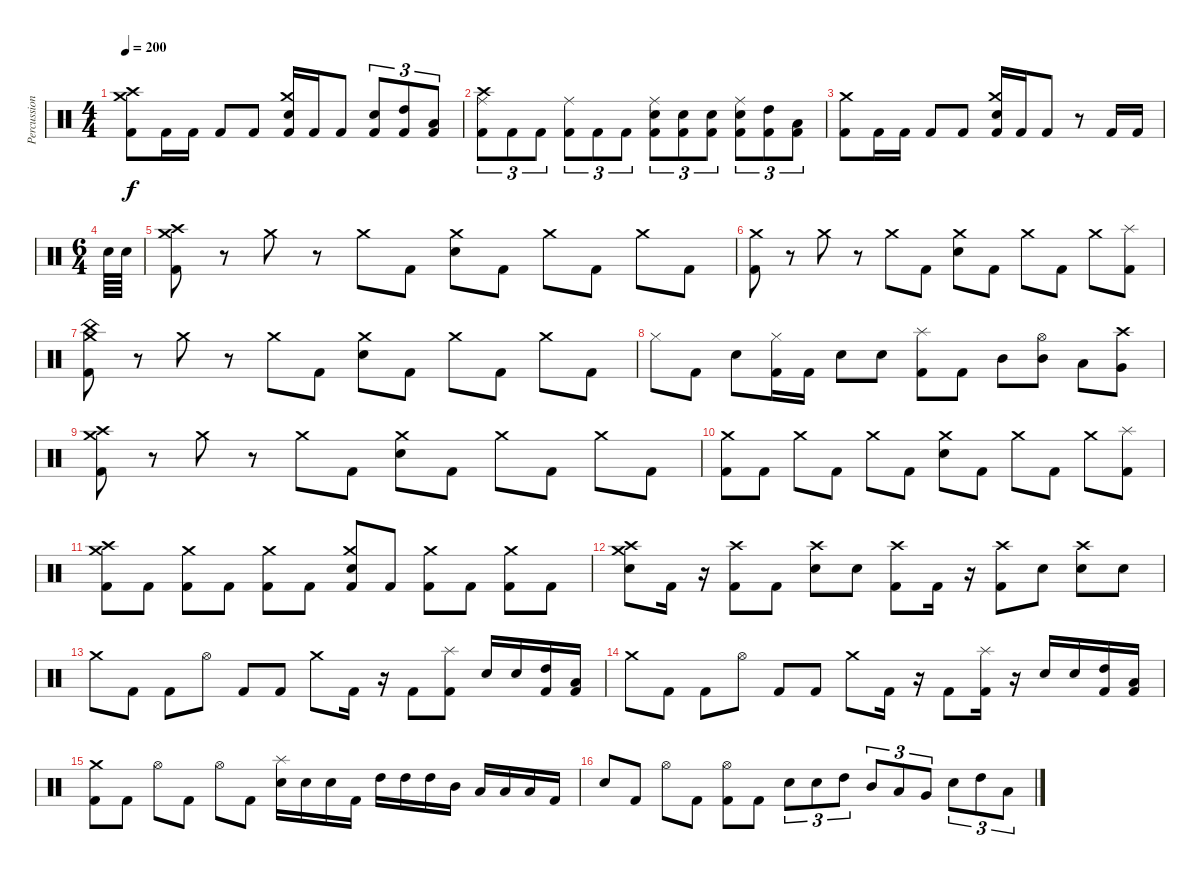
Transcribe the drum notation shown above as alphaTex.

\track ("Percussion" "Percussion") {instrument percussion}
\staff {score}
\articulation defaults
\ts (4 4)
\tempo 200
\clef neutral
\ks c
("Kick (hit) 2" "Crash high (hit)" "Crash medium (hit)").8{dy f} "Kick (hit) 2".16 "Kick (hit) 2".16 "Kick (hit) 2".8 "Kick (hit) 2".8 ("Kick (hit) 2" "Electric Snare (hit)" "Crash medium (hit)").16 "Kick (hit) 2".16 "Kick (hit) 2".8 ("Electric Snare (hit)" "Kick (hit) 2").8{tu (3 2)} ("High Tom (hit)" "Kick (hit) 2").8{tu (3 2)} ("Low Tom (hit)" "Kick (hit) 2").8{tu (3 2)} |
("Crash high (hit)" "Ride (middle)" "Kick (hit) 2").8{tu (3 2)} "Kick (hit) 2".8{tu (3 2)} "Kick (hit) 2".8{tu (3 2)} ("Ride (middle)" "Kick (hit) 2").8{tu (3 2)} "Kick (hit) 2".8{tu (3 2)} "Kick (hit) 2".8{tu (3 2)} ("Ride (middle)" "Electric Snare (hit)" "Kick (hit) 2").8{tu (3 2)} ("Electric Snare (hit)" "Kick (hit) 2").8{tu (3 2)} ("Electric Snare (hit)" "Kick (hit) 2").8{tu (3 2)} ("Ride (middle)" "Electric Snare (hit)" "Kick (hit) 2").8{tu (3 2)} ("High Tom (hit)" "Kick (hit) 2").8{tu (3 2)} ("Low Tom (hit)" "Kick (hit) 2").8{tu (3 2)} |
("Kick (hit) 2" "Crash medium (hit)").8 "Kick (hit) 2".16 "Kick (hit) 2".16 "Kick (hit) 2".8 "Kick (hit) 2".8 ("Kick (hit) 2" "Electric Snare (hit)" "Crash medium (hit)").16 "Kick (hit) 2".16 "Kick (hit) 2".8 r.8 "Kick (hit) 2".16 "Kick (hit) 2".16 |
\ts (6 4)
"Electric Snare (hit)".64 "Electric Snare (hit)".64 |
("Kick (hit) 2" "Crash medium (hit)" "Crash high (hit)").8 r.8 "Crash medium (hit)".8 r.8 "Crash medium (hit)".8 "Kick (hit) 2".8 ("Electric Snare (hit)" "Crash medium (hit)").8 "Kick (hit) 2".8 "Crash medium (hit)".8 "Kick (hit) 2".8 "Crash medium (hit)".8 "Kick (hit) 2".8 |
("Kick (hit) 2" "Crash medium (hit)").8 r.8 "Crash medium (hit)".8 r.8 "Crash medium (hit)".8 "Kick (hit) 2".8 ("Electric Snare (hit)" "Crash medium (hit)").8 "Kick (hit) 2".8 "Crash medium (hit)".8 "Kick (hit) 2".8 "Crash medium (hit)".8 ("Kick (hit) 2" "Splash (hit)").8 |
("Kick (hit) 2" "Crash medium (hit)" "China (hit)").8 r.8 "Crash medium (hit)".8 r.8 "Crash medium (hit)".8 "Kick (hit) 2".8 ("Electric Snare (hit)" "Crash medium (hit)").8 "Kick (hit) 2".8 "Crash medium (hit)".8 "Kick (hit) 2".8 "Crash medium (hit)".8 "Kick (hit) 2".8 |
"Hi-Hat (closed)".8 "Kick (hit) 2".8 "Electric Snare (hit)".8 ("Hi-Hat (closed)" "Kick (hit) 2").16 "Kick (hit) 2".16 "Electric Snare (hit)".8 "Electric Snare (hit)".8 ("Splash (hit)" "Kick (hit) 2").8 "Kick (hit) 2".8 "Mid Tom (hit)".8 ("Hi-Hat (open)" "Mid Tom (hit)").8 "Low Tom (hit)".8 ("Crash high (hit)" "Very Low Tom (hit)").8 |
("Kick (hit) 2" "Crash medium (hit)" "Crash high (hit)").8 r.8 "Crash medium (hit)".8 r.8 "Crash medium (hit)".8 "Kick (hit) 2".8 ("Electric Snare (hit)" "Crash medium (hit)").8 "Kick (hit) 2".8 "Crash medium (hit)".8 "Kick (hit) 2".8 "Crash medium (hit)".8 "Kick (hit) 2".8 |
("Kick (hit) 2" "Crash medium (hit)").8 "Kick (hit) 2".8 "Crash medium (hit)".8 "Kick (hit) 2".8 "Crash medium (hit)".8 "Kick (hit) 2".8 ("Electric Snare (hit)" "Crash medium (hit)").8 "Kick (hit) 2".8 "Crash medium (hit)".8 "Kick (hit) 2".8 "Crash medium (hit)".8 ("Kick (hit) 2" "Splash (hit)").8 |
("Kick (hit) 2" "Crash medium (hit)" "Crash high (hit)").8 "Kick (hit) 2".8 ("Kick (hit) 2" "Crash medium (hit)").8 "Kick (hit) 2".8 ("Kick (hit) 2" "Crash medium (hit)").8 "Kick (hit) 2".8 ("Kick (hit) 2" "Crash medium (hit)" "Electric Snare (hit)").8 "Kick (hit) 2".8 ("Kick (hit) 2" "Crash medium (hit)").8 "Kick (hit) 2".8 ("Kick (hit) 2" "Crash medium (hit)").8 "Kick (hit) 2".8 |
("Crash high (hit)" "Crash medium (hit)" "Electric Snare (hit)").8 "Kick (hit) 2".16 r.16 ("Crash high (hit)" "Kick (hit) 2").8 "Kick (hit) 2".8 ("Crash high (hit)" "Electric Snare (hit)").8 "Electric Snare (hit)".8 ("Crash high (hit)" "Kick (hit) 2").8 "Kick (hit) 2".16 r.16 ("Crash high (hit)" "Kick (hit) 2").8 "Electric Snare (hit)".8 ("Crash high (hit)" "Electric Snare (hit)").8 "Electric Snare (hit)".8 |
"Crash medium (hit)".8 "Kick (hit) 2".8 "Kick (hit) 2".8 "Hi-Hat (open)".8 "Kick (hit) 2".8 "Kick (hit) 2".8 "Crash medium (hit)".8 "Kick (hit) 2".16 r.16 "Kick (hit) 2".8 ("Kick (hit) 2" "Splash (hit)").8 "Electric Snare (hit)".16 "Electric Snare (hit)".16 ("High Tom (hit)" "Kick (hit) 2").16 ("Low Tom (hit)" "Kick (hit) 2").16 |
"Crash medium (hit)".8 "Kick (hit) 2".8 "Kick (hit) 2".8 "Hi-Hat (open)".8 "Kick (hit) 2".8 "Kick (hit) 2".8 "Crash medium (hit)".8 "Kick (hit) 2".16 r.16 "Kick (hit) 2".8 ("Kick (hit) 2" "Splash (hit)").16 r.16 "Electric Snare (hit)".16 "Electric Snare (hit)".16 ("High Tom (hit)" "Kick (hit) 2").16 ("Low Tom (hit)" "Kick (hit) 2").16 |
("Kick (hit) 2" "Crash medium (hit)").8 "Kick (hit) 2".8 "Hi-Hat (open)".8 "Kick (hit) 2".8 "Hi-Hat (open)".8 "Kick (hit) 2".8 ("Electric Snare (hit)" "Splash (hit)").16 "Electric Snare (hit)".16 "Electric Snare (hit)".16 "Kick (hit) 2".16 "High Tom (hit)".16 "High Tom (hit)".16 "High Tom (hit)".16 "Mid Tom (hit)".16 "Low Tom (hit)".16 "Low Tom (hit)".16 "Low Tom (hit)".16 "Kick (hit) 2".16 |
"Electric Snare (hit)".8 "Kick (hit) 2".8 "Hi-Hat (open)".8 "Kick (hit) 2".8 ("Kick (hit) 2" "Hi-Hat (open)").8 "Kick (hit) 2".8 "Electric Snare (hit)".8{tu (3 2)} "Electric Snare (hit)".8{tu (3 2)} "High Tom (hit)".8{tu (3 2)} "Mid Tom (hit)".8{tu (3 2)} "Low Tom (hit)".8{tu (3 2)} "Very Low Tom (hit)".8{tu (3 2)} "Electric Snare (hit)".8{tu (3 2)} "High Tom (hit)".8{tu (3 2)} "Low Tom (hit)".8{tu (3 2)}
